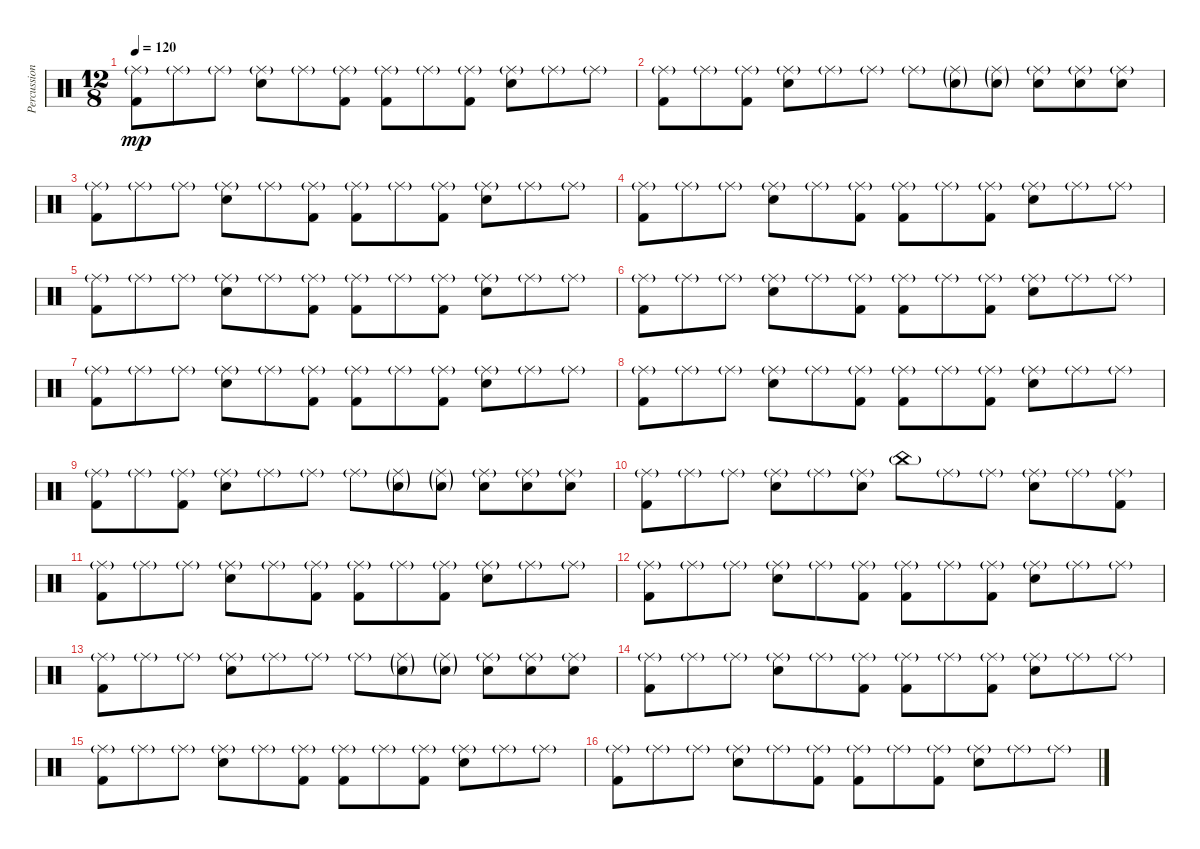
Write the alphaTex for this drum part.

\track ("Percussion" "Percussion") {instrument percussion}
\staff {score}
\articulation defaults
\ts (12 8)
\tempo 120
\clef neutral
\ks c
("Ride (middle)"{g} "Kick (hit) 2").8{dy mp} "Ride (middle)"{g}.8 "Ride (middle)"{g}.8 ("Ride (middle)"{g} "Electric Snare (hit)").8 "Ride (middle)"{g}.8 ("Ride (middle)"{g} "Kick (hit) 2").8 ("Ride (middle)"{g} "Kick (hit) 2").8 "Ride (middle)"{g}.8 ("Ride (middle)"{g} "Kick (hit) 2").8 ("Ride (middle)"{g} "Electric Snare (hit)").8 "Ride (middle)"{g}.8 "Ride (middle)"{g}.8 |
("Ride (middle)"{g} "Kick (hit) 2").8 "Ride (middle)"{g}.8 ("Ride (middle)"{g} "Kick (hit) 2").8 ("Ride (middle)"{g} "Electric Snare (hit)").8 "Ride (middle)"{g}.8 "Ride (middle)"{g}.8 "Ride (middle)"{g}.8 ("Ride (middle)"{g} "Electric Snare (hit)"{g}).8 ("Ride (middle)"{g} "Electric Snare (hit)"{g}).8 ("Ride (middle)"{g} "Electric Snare (hit)").8 ("Ride (middle)"{g} "Electric Snare (hit)").8 ("Ride (middle)"{g} "Electric Snare (hit)").8 |
("Ride (middle)"{g} "Kick (hit) 2").8 "Ride (middle)"{g}.8 "Ride (middle)"{g}.8 ("Ride (middle)"{g} "Electric Snare (hit)").8 "Ride (middle)"{g}.8 ("Ride (middle)"{g} "Kick (hit) 2").8 ("Ride (middle)"{g} "Kick (hit) 2").8 "Ride (middle)"{g}.8 ("Ride (middle)"{g} "Kick (hit) 2").8 ("Ride (middle)"{g} "Electric Snare (hit)").8 "Ride (middle)"{g}.8 "Ride (middle)"{g}.8 |
("Ride (middle)"{g} "Kick (hit) 2").8 "Ride (middle)"{g}.8 "Ride (middle)"{g}.8 ("Ride (middle)"{g} "Electric Snare (hit)").8 "Ride (middle)"{g}.8 ("Ride (middle)"{g} "Kick (hit) 2").8 ("Ride (middle)"{g} "Kick (hit) 2").8 "Ride (middle)"{g}.8 ("Ride (middle)"{g} "Kick (hit) 2").8 ("Ride (middle)"{g} "Electric Snare (hit)").8 "Ride (middle)"{g}.8 "Ride (middle)"{g}.8 |
("Ride (middle)"{g} "Kick (hit) 2").8 "Ride (middle)"{g}.8 "Ride (middle)"{g}.8 ("Ride (middle)"{g} "Electric Snare (hit)").8 "Ride (middle)"{g}.8 ("Ride (middle)"{g} "Kick (hit) 2").8 ("Ride (middle)"{g} "Kick (hit) 2").8 "Ride (middle)"{g}.8 ("Ride (middle)"{g} "Kick (hit) 2").8 ("Ride (middle)"{g} "Electric Snare (hit)").8 "Ride (middle)"{g}.8 "Ride (middle)"{g}.8 |
("Ride (middle)"{g} "Kick (hit) 2").8 "Ride (middle)"{g}.8 "Ride (middle)"{g}.8 ("Ride (middle)"{g} "Electric Snare (hit)").8 "Ride (middle)"{g}.8 ("Ride (middle)"{g} "Kick (hit) 2").8 ("Ride (middle)"{g} "Kick (hit) 2").8 "Ride (middle)"{g}.8 ("Ride (middle)"{g} "Kick (hit) 2").8 ("Ride (middle)"{g} "Electric Snare (hit)").8 "Ride (middle)"{g}.8 "Ride (middle)"{g}.8 |
("Ride (middle)"{g} "Kick (hit) 2").8 "Ride (middle)"{g}.8 "Ride (middle)"{g}.8 ("Ride (middle)"{g} "Electric Snare (hit)").8 "Ride (middle)"{g}.8 ("Ride (middle)"{g} "Kick (hit) 2").8 ("Ride (middle)"{g} "Kick (hit) 2").8 "Ride (middle)"{g}.8 ("Ride (middle)"{g} "Kick (hit) 2").8 ("Ride (middle)"{g} "Electric Snare (hit)").8 "Ride (middle)"{g}.8 "Ride (middle)"{g}.8 |
("Ride (middle)"{g} "Kick (hit) 2").8 "Ride (middle)"{g}.8 "Ride (middle)"{g}.8 ("Ride (middle)"{g} "Electric Snare (hit)").8 "Ride (middle)"{g}.8 ("Ride (middle)"{g} "Kick (hit) 2").8 ("Ride (middle)"{g} "Kick (hit) 2").8 "Ride (middle)"{g}.8 ("Ride (middle)"{g} "Kick (hit) 2").8 ("Ride (middle)"{g} "Electric Snare (hit)").8 "Ride (middle)"{g}.8 "Ride (middle)"{g}.8 |
("Ride (middle)"{g} "Kick (hit) 2").8 "Ride (middle)"{g}.8 ("Ride (middle)"{g} "Kick (hit) 2").8 ("Ride (middle)"{g} "Electric Snare (hit)").8 "Ride (middle)"{g}.8 "Ride (middle)"{g}.8 "Ride (middle)"{g}.8 ("Ride (middle)"{g} "Electric Snare (hit)"{g}).8 ("Ride (middle)"{g} "Electric Snare (hit)"{g}).8 ("Ride (middle)"{g} "Electric Snare (hit)").8 ("Ride (middle)"{g} "Electric Snare (hit)").8 ("Ride (middle)"{g} "Electric Snare (hit)").8 |
("Ride (middle)"{g} "Kick (hit) 2").8 "Ride (middle)"{g}.8 "Ride (middle)"{g}.8 ("Ride (middle)"{g} "Electric Snare (hit)").8 "Ride (middle)"{g}.8 ("Ride (middle)"{g} "Electric Snare (hit)").8 "China (hit)"{g}.8 "Ride (middle)"{g}.8 "Ride (middle)"{g}.8 ("Ride (middle)"{g} "Electric Snare (hit)").8 "Ride (middle)"{g}.8 ("Ride (middle)"{g} "Kick (hit) 2").8 |
("Ride (middle)"{g} "Kick (hit) 2").8 "Ride (middle)"{g}.8 "Ride (middle)"{g}.8 ("Ride (middle)"{g} "Electric Snare (hit)").8 "Ride (middle)"{g}.8 ("Ride (middle)"{g} "Kick (hit) 2").8 ("Ride (middle)"{g} "Kick (hit) 2").8 "Ride (middle)"{g}.8 ("Ride (middle)"{g} "Kick (hit) 2").8 ("Ride (middle)"{g} "Electric Snare (hit)").8 "Ride (middle)"{g}.8 "Ride (middle)"{g}.8 |
("Ride (middle)"{g} "Kick (hit) 2").8 "Ride (middle)"{g}.8 "Ride (middle)"{g}.8 ("Ride (middle)"{g} "Electric Snare (hit)").8 "Ride (middle)"{g}.8 ("Ride (middle)"{g} "Kick (hit) 2").8 ("Ride (middle)"{g} "Kick (hit) 2").8 "Ride (middle)"{g}.8 ("Ride (middle)"{g} "Kick (hit) 2").8 ("Ride (middle)"{g} "Electric Snare (hit)").8 "Ride (middle)"{g}.8 "Ride (middle)"{g}.8 |
("Ride (middle)"{g} "Kick (hit) 2").8 "Ride (middle)"{g}.8 "Ride (middle)"{g}.8 ("Ride (middle)"{g} "Electric Snare (hit)").8 "Ride (middle)"{g}.8 "Ride (middle)"{g}.8 "Ride (middle)"{g}.8 ("Ride (middle)"{g} "Electric Snare (hit)"{g}).8 ("Ride (middle)"{g} "Electric Snare (hit)"{g}).8 ("Ride (middle)"{g} "Electric Snare (hit)").8 ("Ride (middle)"{g} "Electric Snare (hit)").8 ("Ride (middle)"{g} "Electric Snare (hit)").8 |
("Ride (middle)"{g} "Kick (hit) 2").8 "Ride (middle)"{g}.8 "Ride (middle)"{g}.8 ("Ride (middle)"{g} "Electric Snare (hit)").8 "Ride (middle)"{g}.8 ("Ride (middle)"{g} "Kick (hit) 2").8 ("Ride (middle)"{g} "Kick (hit) 2").8 "Ride (middle)"{g}.8 ("Ride (middle)"{g} "Kick (hit) 2").8 ("Ride (middle)"{g} "Electric Snare (hit)").8 "Ride (middle)"{g}.8 "Ride (middle)"{g}.8 |
("Ride (middle)"{g} "Kick (hit) 2").8 "Ride (middle)"{g}.8 "Ride (middle)"{g}.8 ("Ride (middle)"{g} "Electric Snare (hit)").8 "Ride (middle)"{g}.8 ("Ride (middle)"{g} "Kick (hit) 2").8 ("Ride (middle)"{g} "Kick (hit) 2").8 "Ride (middle)"{g}.8 ("Ride (middle)"{g} "Kick (hit) 2").8 ("Ride (middle)"{g} "Electric Snare (hit)").8 "Ride (middle)"{g}.8 "Ride (middle)"{g}.8 |
("Ride (middle)"{g} "Kick (hit) 2").8 "Ride (middle)"{g}.8 "Ride (middle)"{g}.8 ("Ride (middle)"{g} "Electric Snare (hit)").8 "Ride (middle)"{g}.8 ("Ride (middle)"{g} "Kick (hit) 2").8 ("Ride (middle)"{g} "Kick (hit) 2").8 "Ride (middle)"{g}.8 ("Ride (middle)"{g} "Kick (hit) 2").8 ("Ride (middle)"{g} "Electric Snare (hit)").8 "Ride (middle)"{g}.8 "Ride (middle)"{g}.8
